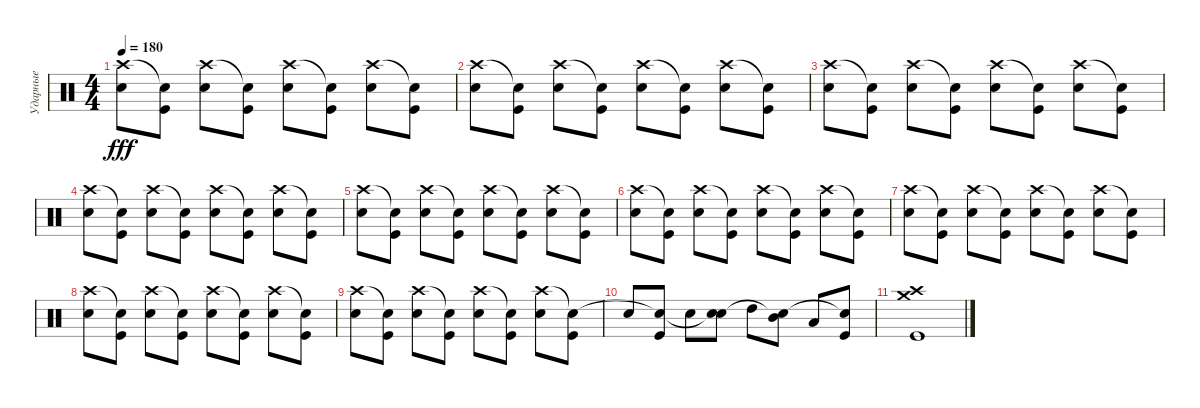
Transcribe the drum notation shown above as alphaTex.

\track ("Ударные" "Ударные") {instrument percussion}
\staff {score}
\articulation defaults
\ts (4 4)
\tempo 180
\clef neutral
\ks c
("Electric Snare (hit)" "Crash high (hit)").8{dy fff} ("Kick (hit)" "Snare (hit)"{t}).8 ("Electric Snare (hit)" "Crash high (hit)").8 ("Kick (hit)" "Snare (hit)"{t}).8 ("Electric Snare (hit)" "Crash high (hit)").8 ("Kick (hit)" "Snare (hit)"{t}).8 ("Electric Snare (hit)" "Crash high (hit)").8 ("Kick (hit)" "Snare (hit)"{t}).8 |
("Electric Snare (hit)" "Crash high (hit)").8 ("Kick (hit)" "Snare (hit)"{t}).8 ("Electric Snare (hit)" "Crash high (hit)").8 ("Kick (hit)" "Snare (hit)"{t}).8 ("Electric Snare (hit)" "Crash high (hit)").8 ("Kick (hit)" "Snare (hit)"{t}).8 ("Electric Snare (hit)" "Crash high (hit)").8 ("Kick (hit)" "Snare (hit)"{t}).8 |
("Electric Snare (hit)" "Crash high (hit)").8 ("Kick (hit)" "Snare (hit)"{t}).8 ("Electric Snare (hit)" "Crash high (hit)").8 ("Kick (hit)" "Snare (hit)"{t}).8 ("Electric Snare (hit)" "Crash high (hit)").8 ("Kick (hit)" "Snare (hit)"{t}).8 ("Electric Snare (hit)" "Crash high (hit)").8 ("Kick (hit)" "Snare (hit)"{t}).8 |
("Electric Snare (hit)" "Crash high (hit)").8 ("Kick (hit)" "Snare (hit)"{t}).8 ("Electric Snare (hit)" "Crash high (hit)").8 ("Kick (hit)" "Snare (hit)"{t}).8 ("Electric Snare (hit)" "Crash high (hit)").8 ("Kick (hit)" "Snare (hit)"{t}).8 ("Electric Snare (hit)" "Crash high (hit)").8 ("Kick (hit)" "Snare (hit)"{t}).8 |
("Electric Snare (hit)" "Crash high (hit)").8 ("Kick (hit)" "Snare (hit)"{t}).8 ("Electric Snare (hit)" "Crash high (hit)").8 ("Kick (hit)" "Snare (hit)"{t}).8 ("Electric Snare (hit)" "Crash high (hit)").8 ("Kick (hit)" "Snare (hit)"{t}).8 ("Electric Snare (hit)" "Crash high (hit)").8 ("Kick (hit)" "Snare (hit)"{t}).8 |
("Electric Snare (hit)" "Crash high (hit)").8 ("Kick (hit)" "Snare (hit)"{t}).8 ("Electric Snare (hit)" "Crash high (hit)").8 ("Kick (hit)" "Snare (hit)"{t}).8 ("Electric Snare (hit)" "Crash high (hit)").8 ("Kick (hit)" "Snare (hit)"{t}).8 ("Electric Snare (hit)" "Crash high (hit)").8 ("Kick (hit)" "Snare (hit)"{t}).8 |
("Electric Snare (hit)" "Crash high (hit)").8 ("Kick (hit)" "Snare (hit)"{t}).8 ("Electric Snare (hit)" "Crash high (hit)").8 ("Kick (hit)" "Snare (hit)"{t}).8 ("Electric Snare (hit)" "Crash high (hit)").8 ("Kick (hit)" "Snare (hit)"{t}).8 ("Electric Snare (hit)" "Crash high (hit)").8 ("Kick (hit)" "Snare (hit)"{t}).8 |
("Electric Snare (hit)" "Crash high (hit)").8 ("Kick (hit)" "Snare (hit)"{t}).8 ("Electric Snare (hit)" "Crash high (hit)").8 ("Kick (hit)" "Snare (hit)"{t}).8 ("Electric Snare (hit)" "Crash high (hit)").8 ("Kick (hit)" "Snare (hit)"{t}).8 ("Electric Snare (hit)" "Crash high (hit)").8 ("Kick (hit)" "Snare (hit)"{t}).8 |
("Electric Snare (hit)" "Crash high (hit)").8 ("Kick (hit)" "Snare (hit)"{t}).8 ("Electric Snare (hit)" "Crash high (hit)").8 ("Kick (hit)" "Snare (hit)"{t}).8 ("Electric Snare (hit)" "Crash high (hit)").8 ("Kick (hit)" "Snare (hit)"{t}).8 ("Electric Snare (hit)" "Crash high (hit)").8 ("Kick (hit)" "Snare (hit)"{t}).8 |
"Electric Snare (hit)".8 ("Kick (hit)" "Snare (hit)"{t}).8 "Electric Snare (hit)".8 ("Electric Snare (hit)" "Snare (hit)"{t}).8 "High Tom (hit)".8 ("Mid Tom (hit)" "Snare (hit)"{t}).8 "Low Tom (hit)".8 ("Kick (hit)" "Snare (hit)"{t}).8 |
("Crash medium (hit)" "Crash high (hit)" "Kick (hit)").1
